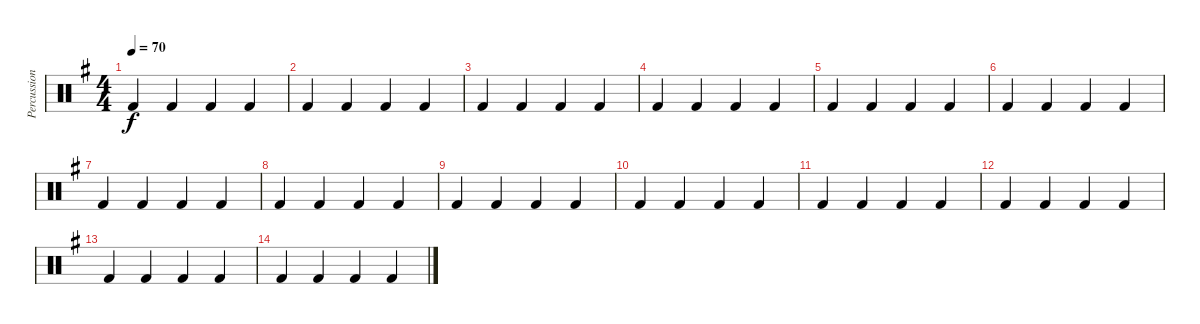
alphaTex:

\track ("Percussion" "Percussion") {instrument percussion}
\staff {score}
\articulation defaults
\ts (4 4)
\tempo 70
\clef neutral
\ks eminor "Kick (hit) 2".4{dy f} "Kick (hit) 2".4 "Kick (hit) 2".4 "Kick (hit) 2".4
|
"Kick (hit) 2".4 "Kick (hit) 2".4 "Kick (hit) 2".4 "Kick (hit) 2".4 |
"Kick (hit) 2".4 "Kick (hit) 2".4 "Kick (hit) 2".4 "Kick (hit) 2".4 |
"Kick (hit) 2".4 "Kick (hit) 2".4 "Kick (hit) 2".4 "Kick (hit) 2".4 |
"Kick (hit) 2".4 "Kick (hit) 2".4 "Kick (hit) 2".4 "Kick (hit) 2".4 |
"Kick (hit) 2".4 "Kick (hit) 2".4 "Kick (hit) 2".4 "Kick (hit) 2".4 |
"Kick (hit) 2".4 "Kick (hit) 2".4 "Kick (hit) 2".4 "Kick (hit) 2".4 |
"Kick (hit) 2".4 "Kick (hit) 2".4 "Kick (hit) 2".4 "Kick (hit) 2".4 |
"Kick (hit) 2".4 "Kick (hit) 2".4 "Kick (hit) 2".4 "Kick (hit) 2".4 |
"Kick (hit) 2".4 "Kick (hit) 2".4 "Kick (hit) 2".4 "Kick (hit) 2".4 |
"Kick (hit) 2".4 "Kick (hit) 2".4 "Kick (hit) 2".4 "Kick (hit) 2".4 |
"Kick (hit) 2".4 "Kick (hit) 2".4 "Kick (hit) 2".4 "Kick (hit) 2".4 |
"Kick (hit) 2".4 "Kick (hit) 2".4 "Kick (hit) 2".4 "Kick (hit) 2".4 |
"Kick (hit) 2".4 "Kick (hit) 2".4 "Kick (hit) 2".4 "Kick (hit) 2".4
